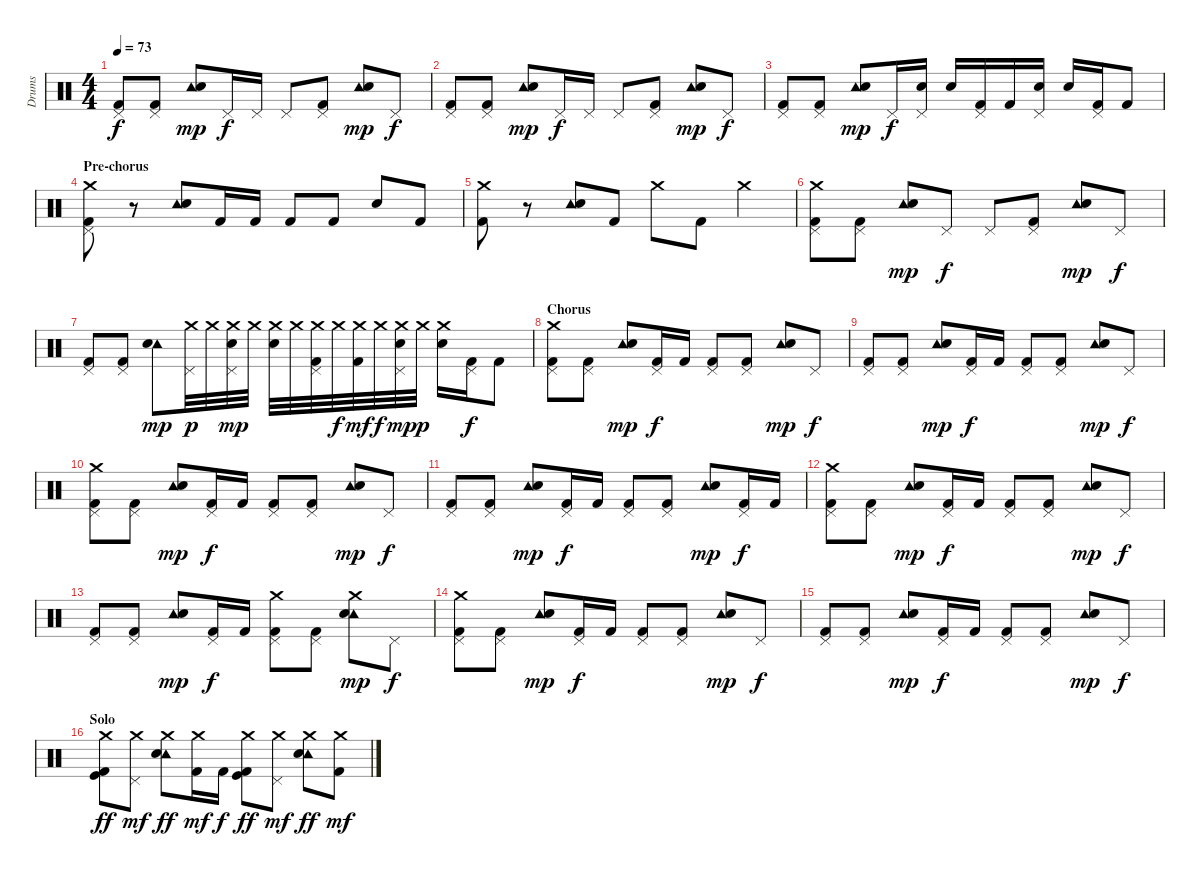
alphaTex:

\track ("Drums" "Drums") {instrument percussion}
\staff {score}
\articulation defaults
\ts (4 4)
\tempo 73
\clef neutral
\ks c
("Pedal Hi-Hat (hit)" "Kick (hit) 2").8{dy f} ("Pedal Hi-Hat (hit)" "Kick (hit) 2").8 ("Tambourine (hit)" "Snare (hit) 2").8{dy mp} "Pedal Hi-Hat (hit)".16{dy f} "Pedal Hi-Hat (hit)".16 "Pedal Hi-Hat (hit)".8 ("Pedal Hi-Hat (hit)" "Kick (hit) 2").8 ("Tambourine (hit)" "Snare (hit) 2").8{dy mp} "Pedal Hi-Hat (hit)".8{dy f} |
("Pedal Hi-Hat (hit)" "Kick (hit) 2").8 ("Pedal Hi-Hat (hit)" "Kick (hit) 2").8 ("Tambourine (hit)" "Snare (hit) 2").8{dy mp} "Pedal Hi-Hat (hit)".16{dy f} "Pedal Hi-Hat (hit)".16 "Pedal Hi-Hat (hit)".8 ("Pedal Hi-Hat (hit)" "Kick (hit) 2").8 ("Tambourine (hit)" "Snare (hit) 2").8{dy mp} "Pedal Hi-Hat (hit)".8{dy f} |
("Pedal Hi-Hat (hit)" "Kick (hit) 2").8 ("Pedal Hi-Hat (hit)" "Kick (hit) 2").8 ("Tambourine (hit)" "Snare (hit) 2").8{dy mp} "Pedal Hi-Hat (hit)".16{dy f} ("Pedal Hi-Hat (hit)" "Snare (hit) 2").16 "Snare (hit) 2".16 ("Pedal Hi-Hat (hit)" "Kick (hit) 2").16 "Kick (hit) 2".16 ("Pedal Hi-Hat (hit)" "Snare (hit) 2").16 "Snare (hit) 2".16 ("Pedal Hi-Hat (hit)" "Kick (hit) 2").16 "Kick (hit) 2".8 |
\section ("" "Pre-chorus")
("Crash medium (hit)" "Pedal Hi-Hat (hit)" "Kick (hit) 2").8 r.8 ("Tambourine (hit)" "Electric Snare (hit)").8 "Kick (hit) 2".16 "Kick (hit) 2".16 "Kick (hit) 2".8 "Kick (hit) 2".8 "Electric Snare (hit)".8 "Kick (hit) 2".8 |
("Crash medium (hit)" "Kick (hit) 2").8 r.8 ("Tambourine (hit)" "Electric Snare (hit)").8 "Kick (hit) 2".8 "Crash medium (hit)".8 "Kick (hit) 2".8 "Crash medium (hit)".4 |
("Crash medium (hit)" "Pedal Hi-Hat (hit)" "Kick (hit) 2").8 ("Pedal Hi-Hat (hit)" "Kick (hit) 2").8 ("Tambourine (hit)" "Snare (hit) 2").8{dy mp} "Pedal Hi-Hat (hit)".8{dy f} "Pedal Hi-Hat (hit)".8 ("Pedal Hi-Hat (hit)" "Kick (hit) 2").8 ("Tambourine (hit)" "Snare (hit) 2").8{dy mp} "Pedal Hi-Hat (hit)".8{dy f} |
("Pedal Hi-Hat (hit)" "Kick (hit) 2").8 ("Pedal Hi-Hat (hit)" "Kick (hit) 2").8 ("Tambourine (hit)" "Snare (hit) 2").8{dy mp} ("Crash medium (hit)" "Pedal Hi-Hat (hit)").32{dy p} "Crash medium (hit)".32 ("Crash medium (hit)" "Pedal Hi-Hat (hit)" "Snare (hit) 2").32{dy mp} "Crash medium (hit)".32 ("Crash medium (hit)" "Snare (hit) 2").32 "Crash medium (hit)".32 ("Crash medium (hit)" "Pedal Hi-Hat (hit)" "Kick (hit) 2").32 "Crash medium (hit)".32{dy f} ("Crash medium (hit)" "Kick (hit) 2").32{dy mf} "Crash medium (hit)".32{dy f} ("Crash medium (hit)" "Pedal Hi-Hat (hit)" "Snare (hit) 2").32{dy mp} "Crash medium (hit)".32{dy p} ("Crash medium (hit)" "Snare (hit) 2").16 ("Pedal Hi-Hat (hit)" "Kick (hit) 2").16{dy f} "Kick (hit) 2".8 |
\section ("" "Chorus")
("Crash medium (hit)" "Pedal Hi-Hat (hit)" "Kick (hit) 2").8 ("Pedal Hi-Hat (hit)" "Kick (hit) 2").8 ("Tambourine (hit)" "Snare (hit) 2").8{dy mp} ("Pedal Hi-Hat (hit)" "Kick (hit) 2").16{dy f} "Kick (hit) 2".16 ("Pedal Hi-Hat (hit)" "Kick (hit) 2").8 ("Pedal Hi-Hat (hit)" "Kick (hit) 2").8 ("Tambourine (hit)" "Snare (hit) 2").8{dy mp} "Pedal Hi-Hat (hit)".8{dy f} |
("Pedal Hi-Hat (hit)" "Kick (hit) 2").8 ("Pedal Hi-Hat (hit)" "Kick (hit) 2").8 ("Tambourine (hit)" "Snare (hit) 2").8{dy mp} ("Pedal Hi-Hat (hit)" "Kick (hit) 2").16{dy f} "Kick (hit) 2".16 ("Pedal Hi-Hat (hit)" "Kick (hit) 2").8 ("Pedal Hi-Hat (hit)" "Kick (hit) 2").8 ("Tambourine (hit)" "Snare (hit) 2").8{dy mp} "Pedal Hi-Hat (hit)".8{dy f} |
("Crash medium (hit)" "Pedal Hi-Hat (hit)" "Kick (hit) 2").8 ("Pedal Hi-Hat (hit)" "Kick (hit) 2").8 ("Tambourine (hit)" "Snare (hit) 2").8{dy mp} ("Pedal Hi-Hat (hit)" "Kick (hit) 2").16{dy f} "Kick (hit) 2".16 ("Pedal Hi-Hat (hit)" "Kick (hit) 2").8 ("Pedal Hi-Hat (hit)" "Kick (hit) 2").8 ("Tambourine (hit)" "Snare (hit) 2").8{dy mp} "Pedal Hi-Hat (hit)".8{dy f} |
("Pedal Hi-Hat (hit)" "Kick (hit) 2").8 ("Pedal Hi-Hat (hit)" "Kick (hit) 2").8 ("Tambourine (hit)" "Snare (hit) 2").8{dy mp} ("Pedal Hi-Hat (hit)" "Kick (hit) 2").16{dy f} "Kick (hit) 2".16 ("Pedal Hi-Hat (hit)" "Kick (hit) 2").8 ("Pedal Hi-Hat (hit)" "Kick (hit) 2").8 ("Tambourine (hit)" "Snare (hit) 2").8{dy mp} ("Pedal Hi-Hat (hit)" "Kick (hit) 2").16{dy f} "Kick (hit) 2".16 |
("Crash medium (hit)" "Pedal Hi-Hat (hit)" "Kick (hit) 2").8 ("Pedal Hi-Hat (hit)" "Kick (hit) 2").8 ("Tambourine (hit)" "Snare (hit) 2").8{dy mp} ("Pedal Hi-Hat (hit)" "Kick (hit) 2").16{dy f} "Kick (hit) 2".16 ("Pedal Hi-Hat (hit)" "Kick (hit) 2").8 ("Pedal Hi-Hat (hit)" "Kick (hit) 2").8 ("Tambourine (hit)" "Snare (hit) 2").8{dy mp} "Pedal Hi-Hat (hit)".8{dy f} |
("Pedal Hi-Hat (hit)" "Kick (hit) 2").8 ("Pedal Hi-Hat (hit)" "Kick (hit) 2").8 ("Tambourine (hit)" "Snare (hit) 2").8{dy mp} ("Pedal Hi-Hat (hit)" "Kick (hit) 2").16{dy f} "Kick (hit) 2".16 ("Crash medium (hit)" "Pedal Hi-Hat (hit)" "Kick (hit) 2").8 ("Pedal Hi-Hat (hit)" "Kick (hit) 2").8 ("Crash medium (hit)" "Tambourine (hit)" "Snare (hit) 2").8{dy mp} "Pedal Hi-Hat (hit)".8{dy f} |
("Crash medium (hit)" "Pedal Hi-Hat (hit)" "Kick (hit) 2").8 ("Pedal Hi-Hat (hit)" "Kick (hit) 2").8 ("Tambourine (hit)" "Snare (hit) 2").8{dy mp} ("Pedal Hi-Hat (hit)" "Kick (hit) 2").16{dy f} "Kick (hit) 2".16 ("Pedal Hi-Hat (hit)" "Kick (hit) 2").8 ("Pedal Hi-Hat (hit)" "Kick (hit) 2").8 ("Tambourine (hit)" "Snare (hit) 2").8{dy mp} "Pedal Hi-Hat (hit)".8{dy f} |
("Pedal Hi-Hat (hit)" "Kick (hit) 2").8 ("Pedal Hi-Hat (hit)" "Kick (hit) 2").8 ("Tambourine (hit)" "Snare (hit) 2").8{dy mp} ("Pedal Hi-Hat (hit)" "Kick (hit) 2").16{dy f} "Kick (hit) 2".16 ("Pedal Hi-Hat (hit)" "Kick (hit) 2").8 ("Pedal Hi-Hat (hit)" "Kick (hit) 2").8 ("Tambourine (hit)" "Snare (hit) 2").8{dy mp} "Pedal Hi-Hat (hit)".8{dy f} |
\section ("" "Solo")
("Crash medium (hit)" "Kick (hit) 2" "Kick (hit)").8{dy ff} ("Crash medium (hit)" "Pedal Hi-Hat (hit)").8{dy mf} ("Crash medium (hit)" "Tambourine (hit)" "Snare (hit) 2").8{dy ff} ("Crash medium (hit)" "Kick (hit) 2").16{dy mf} "Kick (hit) 2".16{dy f} ("Crash medium (hit)" "Kick (hit) 2" "Kick (hit)").8{dy ff} ("Crash medium (hit)" "Pedal Hi-Hat (hit)").8{dy mf} ("Crash medium (hit)" "Tambourine (hit)" "Snare (hit) 2").8{dy ff} ("Crash medium (hit)" "Kick (hit) 2").8{dy mf}
